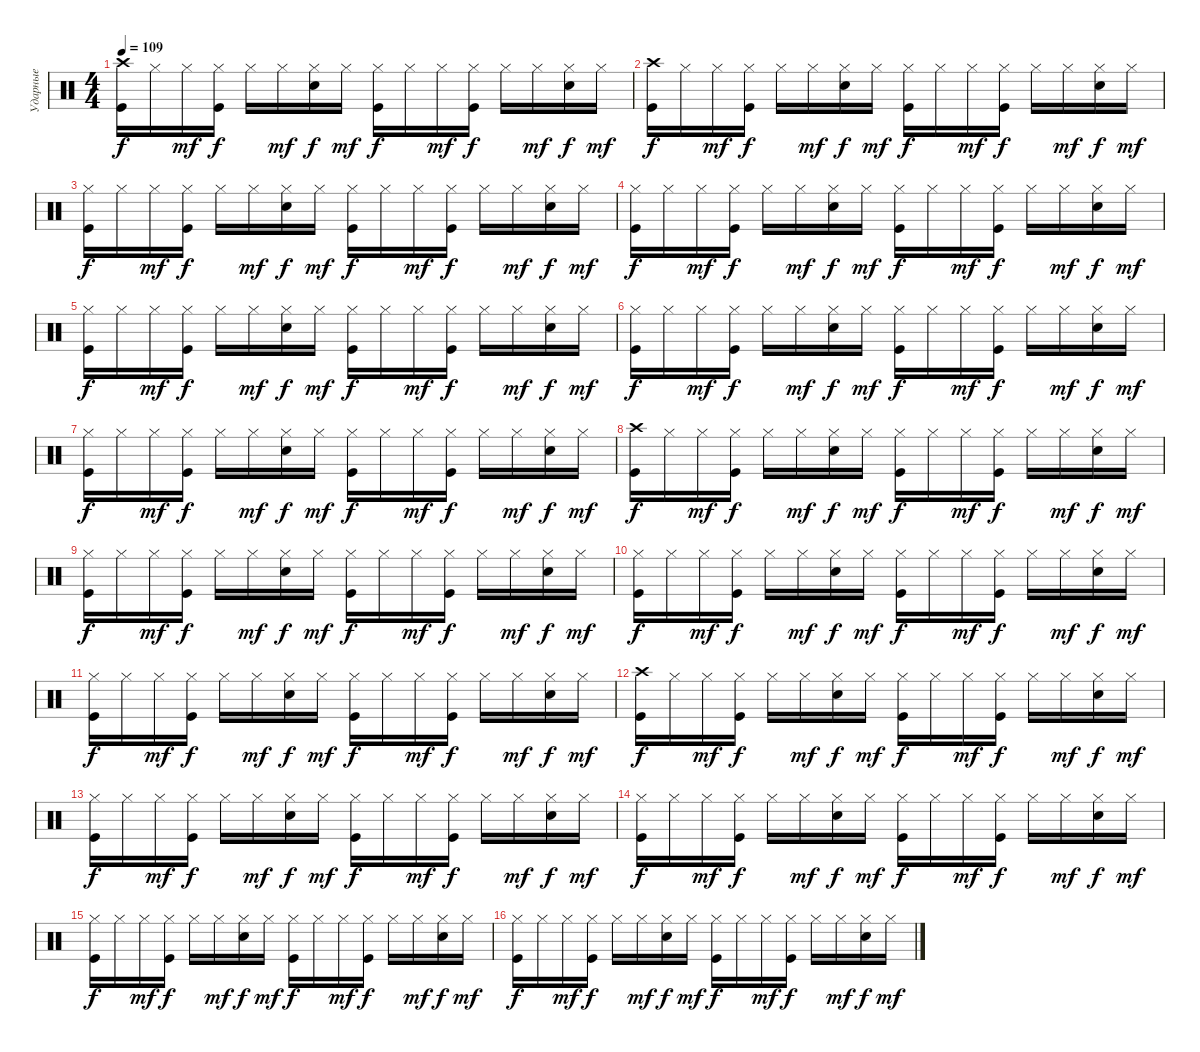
\track ("Ударные" "Ударные") {instrument percussion}
\staff {score}
\articulation defaults
\ts (4 4)
\tempo 109
\clef neutral
\ks c
("Kick (hit)" "Crash high (hit)").16{dy f} "Hi-Hat (closed)".16 "Hi-Hat (closed)".16{dy mf} ("Kick (hit)" "Hi-Hat (closed)").16{dy f} "Hi-Hat (closed)".16 "Hi-Hat (closed)".16{dy mf} ("Hi-Hat (closed)" "Electric Snare (hit)").16{dy f} "Hi-Hat (closed)".16{dy mf} ("Kick (hit)" "Hi-Hat (closed)").16{dy f} "Hi-Hat (closed)".16 "Hi-Hat (closed)".16{dy mf} ("Kick (hit)" "Hi-Hat (closed)").16{dy f} "Hi-Hat (closed)".16 "Hi-Hat (closed)".16{dy mf} ("Electric Snare (hit)" "Hi-Hat (closed)").16{dy f} "Hi-Hat (closed)".16{dy mf} |
("Crash high (hit)" "Kick (hit)").16{dy f} "Hi-Hat (closed)".16 "Hi-Hat (closed)".16{dy mf} ("Hi-Hat (closed)" "Kick (hit)").16{dy f} "Hi-Hat (closed)".16 "Hi-Hat (closed)".16{dy mf} ("Hi-Hat (closed)" "Electric Snare (hit)").16{dy f} "Hi-Hat (closed)".16{dy mf} ("Kick (hit)" "Hi-Hat (closed)").16{dy f} "Hi-Hat (closed)".16 "Hi-Hat (closed)".16{dy mf} ("Kick (hit)" "Hi-Hat (closed)").16{dy f} "Hi-Hat (closed)".16 "Hi-Hat (closed)".16{dy mf} ("Hi-Hat (closed)" "Electric Snare (hit)").16{dy f} "Hi-Hat (closed)".16{dy mf} |
("Kick (hit)" "Hi-Hat (closed)").16{dy f} "Hi-Hat (closed)".16 "Hi-Hat (closed)".16{dy mf} ("Kick (hit)" "Hi-Hat (closed)").16{dy f} "Hi-Hat (closed)".16 "Hi-Hat (closed)".16{dy mf} ("Electric Snare (hit)" "Hi-Hat (closed)").16{dy f} "Hi-Hat (closed)".16{dy mf} ("Hi-Hat (closed)" "Kick (hit)").16{dy f} "Hi-Hat (closed)".16 "Hi-Hat (closed)".16{dy mf} ("Hi-Hat (closed)" "Kick (hit)").16{dy f} "Hi-Hat (closed)".16 "Hi-Hat (closed)".16{dy mf} ("Hi-Hat (closed)" "Electric Snare (hit)").16{dy f} "Hi-Hat (closed)".16{dy mf} |
("Hi-Hat (closed)" "Kick (hit)").16{dy f} "Hi-Hat (closed)".16 "Hi-Hat (closed)".16{dy mf} ("Kick (hit)" "Hi-Hat (closed)").16{dy f} "Hi-Hat (closed)".16 "Hi-Hat (closed)".16{dy mf} ("Electric Snare (hit)" "Hi-Hat (closed)").16{dy f} "Hi-Hat (closed)".16{dy mf} ("Kick (hit)" "Hi-Hat (closed)").16{dy f} "Hi-Hat (closed)".16 "Hi-Hat (closed)".16{dy mf} ("Hi-Hat (closed)" "Kick (hit)").16{dy f} "Hi-Hat (closed)".16 "Hi-Hat (closed)".16{dy mf} ("Electric Snare (hit)" "Hi-Hat (closed)").16{dy f} "Hi-Hat (closed)".16{dy mf} |
("Hi-Hat (closed)" "Kick (hit)").16{dy f} "Hi-Hat (closed)".16 "Hi-Hat (closed)".16{dy mf} ("Hi-Hat (closed)" "Kick (hit)").16{dy f} "Hi-Hat (closed)".16 "Hi-Hat (closed)".16{dy mf} ("Electric Snare (hit)" "Hi-Hat (closed)").16{dy f} "Hi-Hat (closed)".16{dy mf} ("Hi-Hat (closed)" "Kick (hit)").16{dy f} "Hi-Hat (closed)".16 "Hi-Hat (closed)".16{dy mf} ("Hi-Hat (closed)" "Kick (hit)").16{dy f} "Hi-Hat (closed)".16 "Hi-Hat (closed)".16{dy mf} ("Electric Snare (hit)" "Hi-Hat (closed)").16{dy f} "Hi-Hat (closed)".16{dy mf} |
("Kick (hit)" "Hi-Hat (closed)").16{dy f} "Hi-Hat (closed)".16 "Hi-Hat (closed)".16{dy mf} ("Hi-Hat (closed)" "Kick (hit)").16{dy f} "Hi-Hat (closed)".16 "Hi-Hat (closed)".16{dy mf} ("Electric Snare (hit)" "Hi-Hat (closed)").16{dy f} "Hi-Hat (closed)".16{dy mf} ("Kick (hit)" "Hi-Hat (closed)").16{dy f} "Hi-Hat (closed)".16 "Hi-Hat (closed)".16{dy mf} ("Kick (hit)" "Hi-Hat (closed)").16{dy f} "Hi-Hat (closed)".16 "Hi-Hat (closed)".16{dy mf} ("Hi-Hat (closed)" "Electric Snare (hit)").16{dy f} "Hi-Hat (closed)".16{dy mf} |
("Kick (hit)" "Hi-Hat (closed)").16{dy f} "Hi-Hat (closed)".16 "Hi-Hat (closed)".16{dy mf} ("Hi-Hat (closed)" "Kick (hit)").16{dy f} "Hi-Hat (closed)".16 "Hi-Hat (closed)".16{dy mf} ("Hi-Hat (closed)" "Electric Snare (hit)").16{dy f} "Hi-Hat (closed)".16{dy mf} ("Hi-Hat (closed)" "Kick (hit)").16{dy f} "Hi-Hat (closed)".16 "Hi-Hat (closed)".16{dy mf} ("Hi-Hat (closed)" "Kick (hit)").16{dy f} "Hi-Hat (closed)".16 "Hi-Hat (closed)".16{dy mf} ("Electric Snare (hit)" "Hi-Hat (closed)").16{dy f} "Hi-Hat (closed)".16{dy mf} |
("Kick (hit)" "Crash high (hit)").16{dy f} "Hi-Hat (closed)".16 "Hi-Hat (closed)".16{dy mf} ("Kick (hit)" "Hi-Hat (closed)").16{dy f} "Hi-Hat (closed)".16 "Hi-Hat (closed)".16{dy mf} ("Hi-Hat (closed)" "Electric Snare (hit)").16{dy f} "Hi-Hat (closed)".16{dy mf} ("Kick (hit)" "Hi-Hat (closed)").16{dy f} "Hi-Hat (closed)".16 "Hi-Hat (closed)".16{dy mf} ("Kick (hit)" "Hi-Hat (closed)").16{dy f} "Hi-Hat (closed)".16 "Hi-Hat (closed)".16{dy mf} ("Hi-Hat (closed)" "Electric Snare (hit)").16{dy f} "Hi-Hat (closed)".16{dy mf} |
("Hi-Hat (closed)" "Kick (hit)").16{dy f} "Hi-Hat (closed)".16 "Hi-Hat (closed)".16{dy mf} ("Hi-Hat (closed)" "Kick (hit)").16{dy f} "Hi-Hat (closed)".16 "Hi-Hat (closed)".16{dy mf} ("Hi-Hat (closed)" "Electric Snare (hit)").16{dy f} "Hi-Hat (closed)".16{dy mf} ("Hi-Hat (closed)" "Kick (hit)").16{dy f} "Hi-Hat (closed)".16 "Hi-Hat (closed)".16{dy mf} ("Hi-Hat (closed)" "Kick (hit)").16{dy f} "Hi-Hat (closed)".16 "Hi-Hat (closed)".16{dy mf} ("Hi-Hat (closed)" "Electric Snare (hit)").16{dy f} "Hi-Hat (closed)".16{dy mf} |
("Hi-Hat (closed)" "Kick (hit)").16{dy f} "Hi-Hat (closed)".16 "Hi-Hat (closed)".16{dy mf} ("Hi-Hat (closed)" "Kick (hit)").16{dy f} "Hi-Hat (closed)".16 "Hi-Hat (closed)".16{dy mf} ("Hi-Hat (closed)" "Electric Snare (hit)").16{dy f} "Hi-Hat (closed)".16{dy mf} ("Hi-Hat (closed)" "Kick (hit)").16{dy f} "Hi-Hat (closed)".16 "Hi-Hat (closed)".16{dy mf} ("Kick (hit)" "Hi-Hat (closed)").16{dy f} "Hi-Hat (closed)".16 "Hi-Hat (closed)".16{dy mf} ("Hi-Hat (closed)" "Electric Snare (hit)").16{dy f} "Hi-Hat (closed)".16{dy mf} |
("Hi-Hat (closed)" "Kick (hit)").16{dy f} "Hi-Hat (closed)".16 "Hi-Hat (closed)".16{dy mf} ("Kick (hit)" "Hi-Hat (closed)").16{dy f} "Hi-Hat (closed)".16 "Hi-Hat (closed)".16{dy mf} ("Electric Snare (hit)" "Hi-Hat (closed)").16{dy f} "Hi-Hat (closed)".16{dy mf} ("Kick (hit)" "Hi-Hat (closed)").16{dy f} "Hi-Hat (closed)".16 "Hi-Hat (closed)".16{dy mf} ("Hi-Hat (closed)" "Kick (hit)").16{dy f} "Hi-Hat (closed)".16 "Hi-Hat (closed)".16{dy mf} ("Electric Snare (hit)" "Hi-Hat (closed)").16{dy f} "Hi-Hat (closed)".16{dy mf} |
("Crash high (hit)" "Kick (hit)").16{dy f} "Hi-Hat (closed)".16 "Hi-Hat (closed)".16{dy mf} ("Hi-Hat (closed)" "Kick (hit)").16{dy f} "Hi-Hat (closed)".16 "Hi-Hat (closed)".16{dy mf} ("Hi-Hat (closed)" "Electric Snare (hit)").16{dy f} "Hi-Hat (closed)".16{dy mf} ("Hi-Hat (closed)" "Kick (hit)").16{dy f} "Hi-Hat (closed)".16 "Hi-Hat (closed)".16{dy mf} ("Hi-Hat (closed)" "Kick (hit)").16{dy f} "Hi-Hat (closed)".16 "Hi-Hat (closed)".16{dy mf} ("Electric Snare (hit)" "Hi-Hat (closed)").16{dy f} "Hi-Hat (closed)".16{dy mf} |
("Hi-Hat (closed)" "Kick (hit)").16{dy f} "Hi-Hat (closed)".16 "Hi-Hat (closed)".16{dy mf} ("Kick (hit)" "Hi-Hat (closed)").16{dy f} "Hi-Hat (closed)".16 "Hi-Hat (closed)".16{dy mf} ("Electric Snare (hit)" "Hi-Hat (closed)").16{dy f} "Hi-Hat (closed)".16{dy mf} ("Hi-Hat (closed)" "Kick (hit)").16{dy f} "Hi-Hat (closed)".16 "Hi-Hat (closed)".16{dy mf} ("Hi-Hat (closed)" "Kick (hit)").16{dy f} "Hi-Hat (closed)".16 "Hi-Hat (closed)".16{dy mf} ("Electric Snare (hit)" "Hi-Hat (closed)").16{dy f} "Hi-Hat (closed)".16{dy mf} |
("Kick (hit)" "Hi-Hat (closed)").16{dy f} "Hi-Hat (closed)".16 "Hi-Hat (closed)".16{dy mf} ("Kick (hit)" "Hi-Hat (closed)").16{dy f} "Hi-Hat (closed)".16 "Hi-Hat (closed)".16{dy mf} ("Electric Snare (hit)" "Hi-Hat (closed)").16{dy f} "Hi-Hat (closed)".16{dy mf} ("Kick (hit)" "Hi-Hat (closed)").16{dy f} "Hi-Hat (closed)".16 "Hi-Hat (closed)".16{dy mf} ("Hi-Hat (closed)" "Kick (hit)").16{dy f} "Hi-Hat (closed)".16 "Hi-Hat (closed)".16{dy mf} ("Hi-Hat (closed)" "Electric Snare (hit)").16{dy f} "Hi-Hat (closed)".16{dy mf} |
("Hi-Hat (closed)" "Kick (hit)").16{dy f} "Hi-Hat (closed)".16 "Hi-Hat (closed)".16{dy mf} ("Hi-Hat (closed)" "Kick (hit)").16{dy f} "Hi-Hat (closed)".16 "Hi-Hat (closed)".16{dy mf} ("Electric Snare (hit)" "Hi-Hat (closed)").16{dy f} "Hi-Hat (closed)".16{dy mf} ("Hi-Hat (closed)" "Kick (hit)").16{dy f} "Hi-Hat (closed)".16 "Hi-Hat (closed)".16{dy mf} ("Hi-Hat (closed)" "Kick (hit)").16{dy f} "Hi-Hat (closed)".16 "Hi-Hat (closed)".16{dy mf} ("Hi-Hat (closed)" "Electric Snare (hit)").16{dy f} "Hi-Hat (closed)".16{dy mf} |
("Kick (hit)" "Hi-Hat (closed)").16{dy f} "Hi-Hat (closed)".16 "Hi-Hat (closed)".16{dy mf} ("Kick (hit)" "Hi-Hat (closed)").16{dy f} "Hi-Hat (closed)".16 "Hi-Hat (closed)".16{dy mf} ("Electric Snare (hit)" "Hi-Hat (closed)").16{dy f} "Hi-Hat (closed)".16{dy mf} ("Hi-Hat (closed)" "Kick (hit)").16{dy f} "Hi-Hat (closed)".16 "Hi-Hat (closed)".16{dy mf} ("Hi-Hat (closed)" "Kick (hit)").16{dy f} "Hi-Hat (closed)".16 "Hi-Hat (closed)".16{dy mf} ("Hi-Hat (closed)" "Electric Snare (hit)").16{dy f} "Hi-Hat (closed)".16{dy mf}
